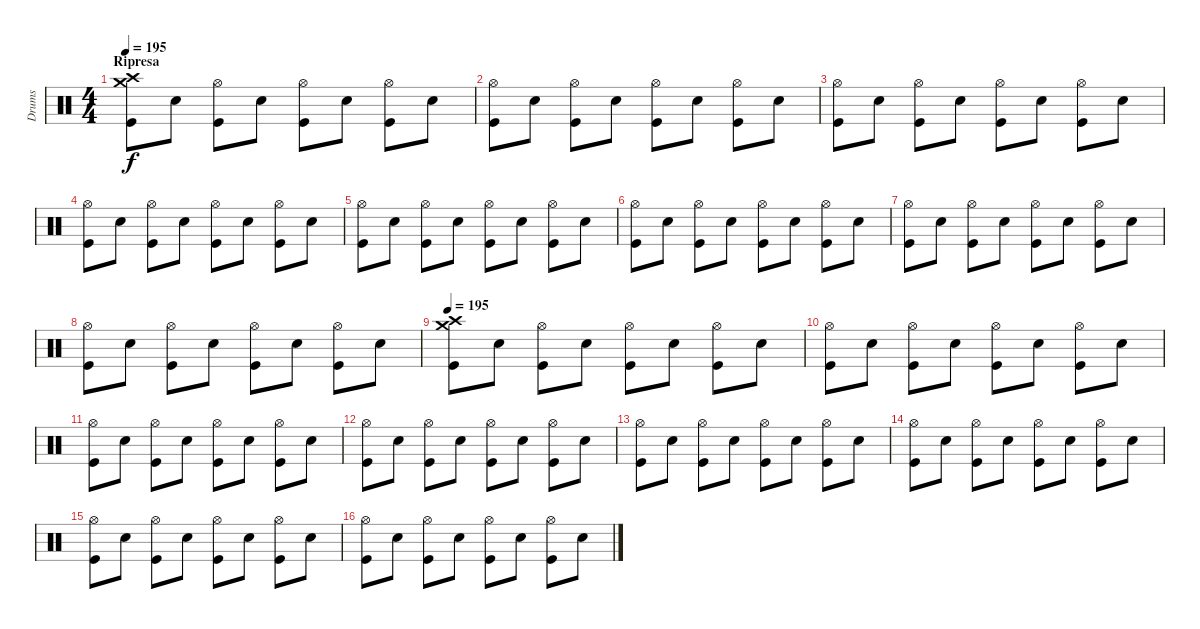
\track ("Drums" "Drums") {instrument percussion}
\staff {score}
\articulation defaults
\ts (4 4)
\section ("" "Ripresa")
\tempo 195
\clef neutral
\ks c
("Crash high (hit)" "Crash medium (hit)" "Kick (hit)").8{dy f} "Electric Snare (hit)".8 ("Hi-Hat (open)" "Kick (hit)").8 "Electric Snare (hit)".8 ("Hi-Hat (open)" "Kick (hit)").8 "Electric Snare (hit)".8 ("Hi-Hat (open)" "Kick (hit)").8 "Electric Snare (hit)".8 |
("Hi-Hat (open)" "Kick (hit)").8 "Electric Snare (hit)".8 ("Hi-Hat (open)" "Kick (hit)").8 "Electric Snare (hit)".8 ("Hi-Hat (open)" "Kick (hit)").8 "Electric Snare (hit)".8 ("Hi-Hat (open)" "Kick (hit)").8 "Electric Snare (hit)".8 |
("Hi-Hat (open)" "Kick (hit)").8 "Electric Snare (hit)".8 ("Hi-Hat (open)" "Kick (hit)").8 "Electric Snare (hit)".8 ("Hi-Hat (open)" "Kick (hit)").8 "Electric Snare (hit)".8 ("Hi-Hat (open)" "Kick (hit)").8 "Electric Snare (hit)".8 |
("Hi-Hat (open)" "Kick (hit)").8 "Electric Snare (hit)".8 ("Hi-Hat (open)" "Kick (hit)").8 "Electric Snare (hit)".8 ("Hi-Hat (open)" "Kick (hit)").8 "Electric Snare (hit)".8 ("Hi-Hat (open)" "Kick (hit)").8 "Electric Snare (hit)".8 |
("Hi-Hat (open)" "Kick (hit)").8 "Electric Snare (hit)".8 ("Hi-Hat (open)" "Kick (hit)").8 "Electric Snare (hit)".8 ("Hi-Hat (open)" "Kick (hit)").8 "Electric Snare (hit)".8 ("Hi-Hat (open)" "Kick (hit)").8 "Electric Snare (hit)".8 |
("Hi-Hat (open)" "Kick (hit)").8 "Electric Snare (hit)".8 ("Hi-Hat (open)" "Kick (hit)").8 "Electric Snare (hit)".8 ("Hi-Hat (open)" "Kick (hit)").8 "Electric Snare (hit)".8 ("Hi-Hat (open)" "Kick (hit)").8 "Electric Snare (hit)".8 |
("Hi-Hat (open)" "Kick (hit)").8 "Electric Snare (hit)".8 ("Hi-Hat (open)" "Kick (hit)").8 "Electric Snare (hit)".8 ("Hi-Hat (open)" "Kick (hit)").8 "Electric Snare (hit)".8 ("Hi-Hat (open)" "Kick (hit)").8 "Electric Snare (hit)".8 |
("Hi-Hat (open)" "Kick (hit)").8 "Electric Snare (hit)".8 ("Hi-Hat (open)" "Kick (hit)").8 "Electric Snare (hit)".8 ("Hi-Hat (open)" "Kick (hit)").8 "Electric Snare (hit)".8 ("Hi-Hat (open)" "Kick (hit)").8 "Electric Snare (hit)".8 |
\tempo 195
("Crash high (hit)" "Crash medium (hit)" "Kick (hit)").8 "Electric Snare (hit)".8 ("Hi-Hat (open)" "Kick (hit)").8 "Electric Snare (hit)".8 ("Hi-Hat (open)" "Kick (hit)").8 "Electric Snare (hit)".8 ("Hi-Hat (open)" "Kick (hit)").8 "Electric Snare (hit)".8 |
("Hi-Hat (open)" "Kick (hit)").8 "Electric Snare (hit)".8 ("Hi-Hat (open)" "Kick (hit)").8 "Electric Snare (hit)".8 ("Hi-Hat (open)" "Kick (hit)").8 "Electric Snare (hit)".8 ("Hi-Hat (open)" "Kick (hit)").8 "Electric Snare (hit)".8 |
("Hi-Hat (open)" "Kick (hit)").8 "Electric Snare (hit)".8 ("Hi-Hat (open)" "Kick (hit)").8 "Electric Snare (hit)".8 ("Hi-Hat (open)" "Kick (hit)").8 "Electric Snare (hit)".8 ("Hi-Hat (open)" "Kick (hit)").8 "Electric Snare (hit)".8 |
("Hi-Hat (open)" "Kick (hit)").8 "Electric Snare (hit)".8 ("Hi-Hat (open)" "Kick (hit)").8 "Electric Snare (hit)".8 ("Hi-Hat (open)" "Kick (hit)").8 "Electric Snare (hit)".8 ("Hi-Hat (open)" "Kick (hit)").8 "Electric Snare (hit)".8 |
("Hi-Hat (open)" "Kick (hit)").8 "Electric Snare (hit)".8 ("Hi-Hat (open)" "Kick (hit)").8 "Electric Snare (hit)".8 ("Hi-Hat (open)" "Kick (hit)").8 "Electric Snare (hit)".8 ("Hi-Hat (open)" "Kick (hit)").8 "Electric Snare (hit)".8 |
("Hi-Hat (open)" "Kick (hit)").8 "Electric Snare (hit)".8 ("Hi-Hat (open)" "Kick (hit)").8 "Electric Snare (hit)".8 ("Hi-Hat (open)" "Kick (hit)").8 "Electric Snare (hit)".8 ("Hi-Hat (open)" "Kick (hit)").8 "Electric Snare (hit)".8 |
("Hi-Hat (open)" "Kick (hit)").8 "Electric Snare (hit)".8 ("Hi-Hat (open)" "Kick (hit)").8 "Electric Snare (hit)".8 ("Hi-Hat (open)" "Kick (hit)").8 "Electric Snare (hit)".8 ("Hi-Hat (open)" "Kick (hit)").8 "Electric Snare (hit)".8 |
("Hi-Hat (open)" "Kick (hit)").8 "Electric Snare (hit)".8 ("Hi-Hat (open)" "Kick (hit)").8 "Electric Snare (hit)".8 ("Hi-Hat (open)" "Kick (hit)").8 "Electric Snare (hit)".8 ("Hi-Hat (open)" "Kick (hit)").8 "Electric Snare (hit)".8
